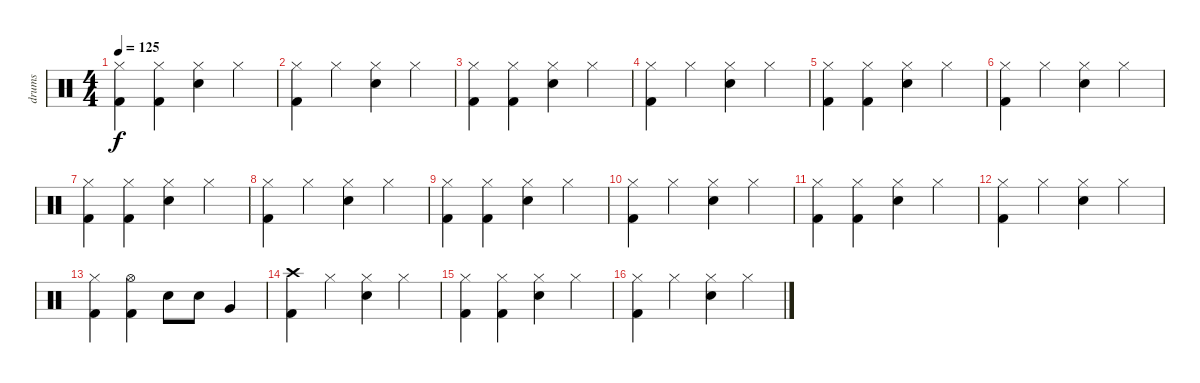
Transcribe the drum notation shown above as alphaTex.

\track ("drums" "drums") {instrument percussion}
\staff {score}
\articulation defaults
\ts (4 4)
\tempo 125
\clef neutral
\ks c
("Kick (hit) 2" "Hi-Hat (closed)").4{dy f} ("Kick (hit) 2" "Hi-Hat (closed)").4 ("Hi-Hat (closed)" "Electric Snare (hit)").4 "Hi-Hat (closed)".4 |
("Kick (hit) 2" "Hi-Hat (closed)").4 "Hi-Hat (closed)".4 ("Hi-Hat (closed)" "Electric Snare (hit)").4 "Hi-Hat (closed)".4 |
("Kick (hit) 2" "Hi-Hat (closed)").4 ("Kick (hit) 2" "Hi-Hat (closed)").4 ("Hi-Hat (closed)" "Electric Snare (hit)").4 "Hi-Hat (closed)".4 |
("Kick (hit) 2" "Hi-Hat (closed)").4 "Hi-Hat (closed)".4 ("Hi-Hat (closed)" "Electric Snare (hit)").4 "Hi-Hat (closed)".4 |
("Kick (hit) 2" "Hi-Hat (closed)").4 ("Kick (hit) 2" "Hi-Hat (closed)").4 ("Hi-Hat (closed)" "Electric Snare (hit)").4 "Hi-Hat (closed)".4 |
("Kick (hit) 2" "Hi-Hat (closed)").4 "Hi-Hat (closed)".4 ("Hi-Hat (closed)" "Electric Snare (hit)").4 "Hi-Hat (closed)".4 |
("Kick (hit) 2" "Hi-Hat (closed)").4 ("Kick (hit) 2" "Hi-Hat (closed)").4 ("Hi-Hat (closed)" "Electric Snare (hit)").4 "Hi-Hat (closed)".4 |
("Kick (hit) 2" "Hi-Hat (closed)").4 "Hi-Hat (closed)".4 ("Hi-Hat (closed)" "Electric Snare (hit)").4 "Hi-Hat (closed)".4 |
("Kick (hit) 2" "Hi-Hat (closed)").4 ("Kick (hit) 2" "Hi-Hat (closed)").4 ("Hi-Hat (closed)" "Electric Snare (hit)").4 "Hi-Hat (closed)".4 |
("Kick (hit) 2" "Hi-Hat (closed)").4 "Hi-Hat (closed)".4 ("Hi-Hat (closed)" "Electric Snare (hit)").4 "Hi-Hat (closed)".4 |
("Kick (hit) 2" "Hi-Hat (closed)").4 ("Kick (hit) 2" "Hi-Hat (closed)").4 ("Hi-Hat (closed)" "Electric Snare (hit)").4 "Hi-Hat (closed)".4 |
("Kick (hit) 2" "Hi-Hat (closed)").4 "Hi-Hat (closed)".4 ("Hi-Hat (closed)" "Electric Snare (hit)").4 "Hi-Hat (closed)".4 |
("Kick (hit) 2" "Hi-Hat (closed)").4 ("Kick (hit) 2" "Hi-Hat (open)").4 "Electric Snare (hit)".8 "Electric Snare (hit)".8 "Very Low Tom (hit)".4 |
("Kick (hit) 2" "Crash high (hit)").4 "Hi-Hat (closed)".4 ("Hi-Hat (closed)" "Electric Snare (hit)").4 "Hi-Hat (closed)".4 |
("Kick (hit) 2" "Hi-Hat (closed)").4 ("Kick (hit) 2" "Hi-Hat (closed)").4 ("Hi-Hat (closed)" "Electric Snare (hit)").4 "Hi-Hat (closed)".4 |
("Kick (hit) 2" "Hi-Hat (closed)").4 "Hi-Hat (closed)".4 ("Hi-Hat (closed)" "Electric Snare (hit)").4 "Hi-Hat (closed)".4
